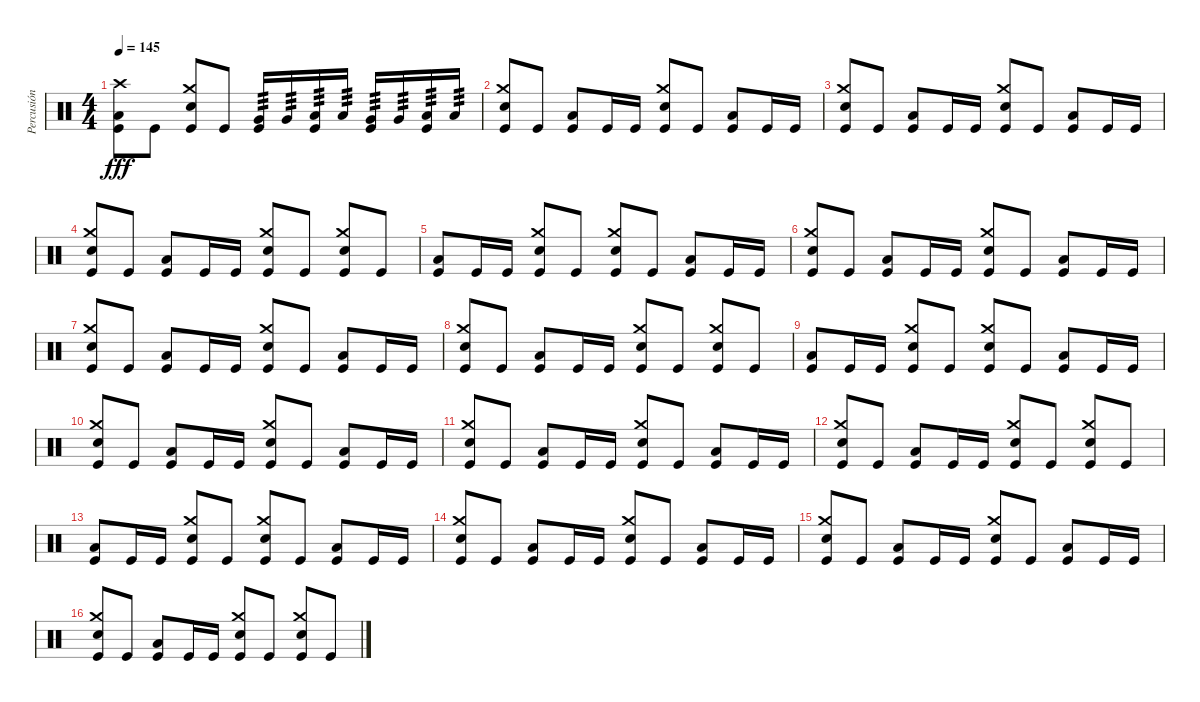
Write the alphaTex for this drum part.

\track ("Percusión" "Percusión") {instrument percussion}
\staff {score}
\articulation defaults
\ts (4 4)
\tempo 145
\clef neutral
\ks c
("Crash high (hit)" "Low Floor Tom (hit)" "Kick (hit)").8{dy fff} "Kick (hit)".8 ("Crash medium (hit)" "Snare (hit) 2" "Kick (hit)").8 "Kick (hit)".8 ("Very Low Tom (hit)" "Kick (hit)").16{tp 3} "Very Low Tom (hit)".16{tp 3} ("Low Floor Tom (hit)" "Kick (hit)").16{tp 3} "Low Floor Tom (hit)".16{tp 3} ("Very Low Tom (hit)" "Kick (hit)").16{tp 3} "Very Low Tom (hit)".16{tp 3} ("Low Floor Tom (hit)" "Kick (hit)").16{tp 3} "Low Floor Tom (hit)".16{tp 3} |
("Crash medium (hit)" "Snare (hit) 2" "Kick (hit)").8 "Kick (hit)".8 ("Low Floor Tom (hit)" "Kick (hit)").8 "Kick (hit)".16 "Kick (hit)".16 ("Crash medium (hit)" "Snare (hit) 2" "Kick (hit)").8 "Kick (hit)".8 ("Low Floor Tom (hit)" "Kick (hit)").8 "Kick (hit)".16 "Kick (hit)".16 |
("Crash medium (hit)" "Snare (hit) 2" "Kick (hit)").8 "Kick (hit)".8 ("Low Floor Tom (hit)" "Kick (hit)").8 "Kick (hit)".16 "Kick (hit)".16 ("Crash medium (hit)" "Snare (hit) 2" "Kick (hit)").8 "Kick (hit)".8 ("Low Floor Tom (hit)" "Kick (hit)").8 "Kick (hit)".16 "Kick (hit)".16 |
("Crash medium (hit)" "Snare (hit) 2" "Kick (hit)").8 "Kick (hit)".8 ("Low Floor Tom (hit)" "Kick (hit)").8 "Kick (hit)".16 "Kick (hit)".16 ("Crash medium (hit)" "Snare (hit) 2" "Kick (hit)").8 "Kick (hit)".8 ("Crash medium (hit)" "Snare (hit) 2" "Kick (hit)").8 "Kick (hit)".8 |
("Low Floor Tom (hit)" "Kick (hit)").8 "Kick (hit)".16 "Kick (hit)".16 ("Crash medium (hit)" "Snare (hit) 2" "Kick (hit)").8 "Kick (hit)".8 ("Crash medium (hit)" "Snare (hit) 2" "Kick (hit)").8 "Kick (hit)".8 ("Low Floor Tom (hit)" "Kick (hit)").8 "Kick (hit)".16 "Kick (hit)".16 |
("Crash medium (hit)" "Snare (hit) 2" "Kick (hit)").8 "Kick (hit)".8 ("Low Floor Tom (hit)" "Kick (hit)").8 "Kick (hit)".16 "Kick (hit)".16 ("Crash medium (hit)" "Snare (hit) 2" "Kick (hit)").8 "Kick (hit)".8 ("Low Floor Tom (hit)" "Kick (hit)").8 "Kick (hit)".16 "Kick (hit)".16 |
("Crash medium (hit)" "Snare (hit) 2" "Kick (hit)").8 "Kick (hit)".8 ("Low Floor Tom (hit)" "Kick (hit)").8 "Kick (hit)".16 "Kick (hit)".16 ("Crash medium (hit)" "Snare (hit) 2" "Kick (hit)").8 "Kick (hit)".8 ("Low Floor Tom (hit)" "Kick (hit)").8 "Kick (hit)".16 "Kick (hit)".16 |
("Crash medium (hit)" "Snare (hit) 2" "Kick (hit)").8 "Kick (hit)".8 ("Low Floor Tom (hit)" "Kick (hit)").8 "Kick (hit)".16 "Kick (hit)".16 ("Crash medium (hit)" "Snare (hit) 2" "Kick (hit)").8 "Kick (hit)".8 ("Crash medium (hit)" "Snare (hit) 2" "Kick (hit)").8 "Kick (hit)".8 |
("Low Floor Tom (hit)" "Kick (hit)").8 "Kick (hit)".16 "Kick (hit)".16 ("Crash medium (hit)" "Snare (hit) 2" "Kick (hit)").8 "Kick (hit)".8 ("Crash medium (hit)" "Snare (hit) 2" "Kick (hit)").8 "Kick (hit)".8 ("Low Floor Tom (hit)" "Kick (hit)").8 "Kick (hit)".16 "Kick (hit)".16 |
("Crash medium (hit)" "Snare (hit) 2" "Kick (hit)").8 "Kick (hit)".8 ("Low Floor Tom (hit)" "Kick (hit)").8 "Kick (hit)".16 "Kick (hit)".16 ("Crash medium (hit)" "Snare (hit) 2" "Kick (hit)").8 "Kick (hit)".8 ("Low Floor Tom (hit)" "Kick (hit)").8 "Kick (hit)".16 "Kick (hit)".16 |
("Crash medium (hit)" "Snare (hit) 2" "Kick (hit)").8 "Kick (hit)".8 ("Low Floor Tom (hit)" "Kick (hit)").8 "Kick (hit)".16 "Kick (hit)".16 ("Crash medium (hit)" "Snare (hit) 2" "Kick (hit)").8 "Kick (hit)".8 ("Low Floor Tom (hit)" "Kick (hit)").8 "Kick (hit)".16 "Kick (hit)".16 |
("Crash medium (hit)" "Snare (hit) 2" "Kick (hit)").8 "Kick (hit)".8 ("Low Floor Tom (hit)" "Kick (hit)").8 "Kick (hit)".16 "Kick (hit)".16 ("Crash medium (hit)" "Snare (hit) 2" "Kick (hit)").8 "Kick (hit)".8 ("Crash medium (hit)" "Snare (hit) 2" "Kick (hit)").8 "Kick (hit)".8 |
("Low Floor Tom (hit)" "Kick (hit)").8 "Kick (hit)".16 "Kick (hit)".16 ("Crash medium (hit)" "Snare (hit) 2" "Kick (hit)").8 "Kick (hit)".8 ("Crash medium (hit)" "Snare (hit) 2" "Kick (hit)").8 "Kick (hit)".8 ("Low Floor Tom (hit)" "Kick (hit)").8 "Kick (hit)".16 "Kick (hit)".16 |
("Crash medium (hit)" "Snare (hit) 2" "Kick (hit)").8 "Kick (hit)".8 ("Low Floor Tom (hit)" "Kick (hit)").8 "Kick (hit)".16 "Kick (hit)".16 ("Crash medium (hit)" "Snare (hit) 2" "Kick (hit)").8 "Kick (hit)".8 ("Low Floor Tom (hit)" "Kick (hit)").8 "Kick (hit)".16 "Kick (hit)".16 |
("Crash medium (hit)" "Snare (hit) 2" "Kick (hit)").8 "Kick (hit)".8 ("Low Floor Tom (hit)" "Kick (hit)").8 "Kick (hit)".16 "Kick (hit)".16 ("Crash medium (hit)" "Snare (hit) 2" "Kick (hit)").8 "Kick (hit)".8 ("Low Floor Tom (hit)" "Kick (hit)").8 "Kick (hit)".16 "Kick (hit)".16 |
("Crash medium (hit)" "Snare (hit) 2" "Kick (hit)").8 "Kick (hit)".8 ("Low Floor Tom (hit)" "Kick (hit)").8 "Kick (hit)".16 "Kick (hit)".16 ("Crash medium (hit)" "Snare (hit) 2" "Kick (hit)").8 "Kick (hit)".8 ("Crash medium (hit)" "Snare (hit) 2" "Kick (hit)").8 "Kick (hit)".8
